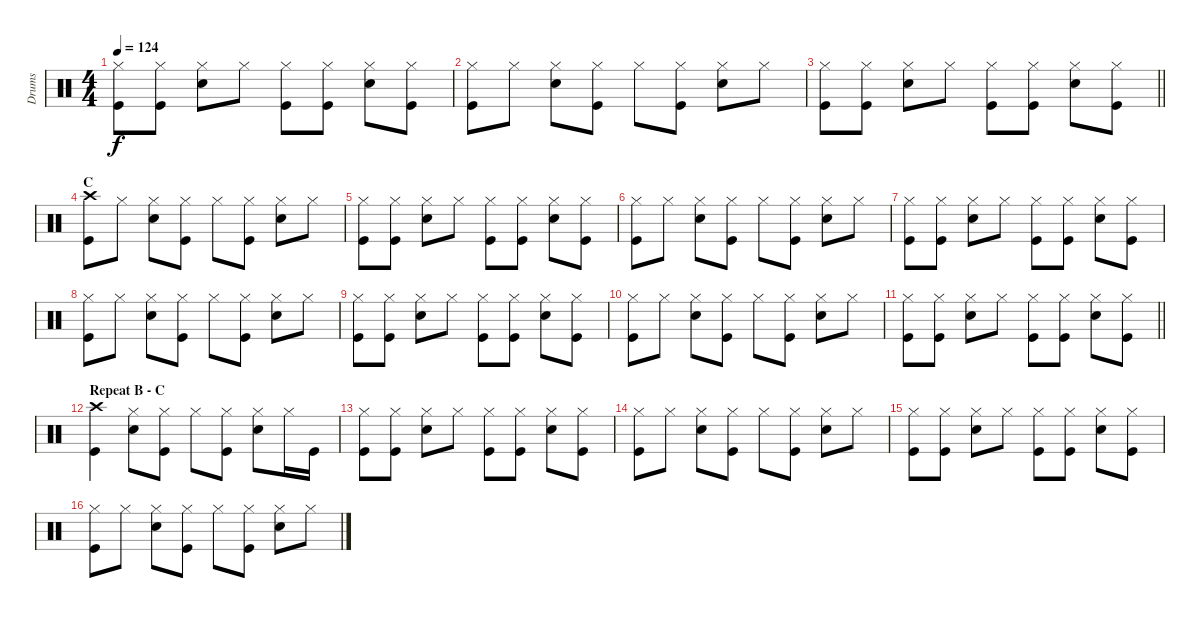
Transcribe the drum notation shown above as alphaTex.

\track ("Drums" "Drums") {instrument percussion}
\staff {score}
\articulation defaults
\ts (4 4)
\tempo 124
\clef neutral
\ks c
("Hi-Hat (closed)" "Kick (hit)").8{dy f} ("Hi-Hat (closed)" "Kick (hit)").8 ("Hi-Hat (closed)" "Electric Snare (hit)").8 "Hi-Hat (closed)".8 ("Hi-Hat (closed)" "Kick (hit)").8 ("Hi-Hat (closed)" "Kick (hit)").8 ("Hi-Hat (closed)" "Electric Snare (hit)").8 ("Hi-Hat (closed)" "Kick (hit)").8 |
("Hi-Hat (closed)" "Kick (hit)").8 "Hi-Hat (closed)".8 ("Hi-Hat (closed)" "Electric Snare (hit)").8 ("Hi-Hat (closed)" "Kick (hit)").8 "Hi-Hat (closed)".8 ("Hi-Hat (closed)" "Kick (hit)").8 ("Hi-Hat (closed)" "Electric Snare (hit)").8 "Hi-Hat (closed)".8 |
\barLineRight lightlight
("Hi-Hat (closed)" "Kick (hit)").8 ("Hi-Hat (closed)" "Kick (hit)").8 ("Hi-Hat (closed)" "Electric Snare (hit)").8 "Hi-Hat (closed)".8 ("Hi-Hat (closed)" "Kick (hit)").8 ("Hi-Hat (closed)" "Kick (hit)").8 ("Hi-Hat (closed)" "Electric Snare (hit)").8 ("Hi-Hat (closed)" "Kick (hit)").8 |
\section ("" "C")
("Crash high (hit)" "Kick (hit)").8 "Hi-Hat (closed)".8 ("Hi-Hat (closed)" "Electric Snare (hit)").8 ("Hi-Hat (closed)" "Kick (hit)").8 "Hi-Hat (closed)".8 ("Hi-Hat (closed)" "Kick (hit)").8 ("Hi-Hat (closed)" "Electric Snare (hit)").8 "Hi-Hat (closed)".8 |
("Hi-Hat (closed)" "Kick (hit)").8 ("Hi-Hat (closed)" "Kick (hit)").8 ("Hi-Hat (closed)" "Electric Snare (hit)").8 "Hi-Hat (closed)".8 ("Hi-Hat (closed)" "Kick (hit)").8 ("Hi-Hat (closed)" "Kick (hit)").8 ("Hi-Hat (closed)" "Electric Snare (hit)").8 ("Hi-Hat (closed)" "Kick (hit)").8 |
("Hi-Hat (closed)" "Kick (hit)").8 "Hi-Hat (closed)".8 ("Hi-Hat (closed)" "Electric Snare (hit)").8 ("Hi-Hat (closed)" "Kick (hit)").8 "Hi-Hat (closed)".8 ("Hi-Hat (closed)" "Kick (hit)").8 ("Hi-Hat (closed)" "Electric Snare (hit)").8 "Hi-Hat (closed)".8 |
("Hi-Hat (closed)" "Kick (hit)").8 ("Hi-Hat (closed)" "Kick (hit)").8 ("Hi-Hat (closed)" "Electric Snare (hit)").8 "Hi-Hat (closed)".8 ("Hi-Hat (closed)" "Kick (hit)").8 ("Hi-Hat (closed)" "Kick (hit)").8 ("Hi-Hat (closed)" "Electric Snare (hit)").8 ("Hi-Hat (closed)" "Kick (hit)").8 |
("Hi-Hat (closed)" "Kick (hit)").8 "Hi-Hat (closed)".8 ("Hi-Hat (closed)" "Electric Snare (hit)").8 ("Hi-Hat (closed)" "Kick (hit)").8 "Hi-Hat (closed)".8 ("Hi-Hat (closed)" "Kick (hit)").8 ("Hi-Hat (closed)" "Electric Snare (hit)").8 "Hi-Hat (closed)".8 |
("Hi-Hat (closed)" "Kick (hit)").8 ("Hi-Hat (closed)" "Kick (hit)").8 ("Hi-Hat (closed)" "Electric Snare (hit)").8 "Hi-Hat (closed)".8 ("Hi-Hat (closed)" "Kick (hit)").8 ("Hi-Hat (closed)" "Kick (hit)").8 ("Hi-Hat (closed)" "Electric Snare (hit)").8 ("Hi-Hat (closed)" "Kick (hit)").8 |
("Hi-Hat (closed)" "Kick (hit)").8 "Hi-Hat (closed)".8 ("Hi-Hat (closed)" "Electric Snare (hit)").8 ("Hi-Hat (closed)" "Kick (hit)").8 "Hi-Hat (closed)".8 ("Hi-Hat (closed)" "Kick (hit)").8 ("Hi-Hat (closed)" "Electric Snare (hit)").8 "Hi-Hat (closed)".8 |
\barLineRight lightlight
("Hi-Hat (closed)" "Kick (hit)").8 ("Hi-Hat (closed)" "Kick (hit)").8 ("Hi-Hat (closed)" "Electric Snare (hit)").8 "Hi-Hat (closed)".8 ("Hi-Hat (closed)" "Kick (hit)").8 ("Hi-Hat (closed)" "Kick (hit)").8 ("Hi-Hat (closed)" "Electric Snare (hit)").8 ("Hi-Hat (closed)" "Kick (hit)").8 |
\section ("" "Repeat B - C")
("Crash high (hit)" "Kick (hit)").4 ("Hi-Hat (closed)" "Electric Snare (hit)").8 ("Hi-Hat (closed)" "Kick (hit)").8 "Hi-Hat (closed)".8 ("Hi-Hat (closed)" "Kick (hit)").8 ("Hi-Hat (closed)" "Electric Snare (hit)").8 "Hi-Hat (closed)".16 "Kick (hit)".16 |
("Hi-Hat (closed)" "Kick (hit)").8 ("Hi-Hat (closed)" "Kick (hit)").8 ("Hi-Hat (closed)" "Electric Snare (hit)").8 "Hi-Hat (closed)".8 ("Hi-Hat (closed)" "Kick (hit)").8 ("Hi-Hat (closed)" "Kick (hit)").8 ("Hi-Hat (closed)" "Electric Snare (hit)").8 ("Hi-Hat (closed)" "Kick (hit)").8 |
("Hi-Hat (closed)" "Kick (hit)").8 "Hi-Hat (closed)".8 ("Hi-Hat (closed)" "Electric Snare (hit)").8 ("Hi-Hat (closed)" "Kick (hit)").8 "Hi-Hat (closed)".8 ("Hi-Hat (closed)" "Kick (hit)").8 ("Hi-Hat (closed)" "Electric Snare (hit)").8 "Hi-Hat (closed)".8 |
("Hi-Hat (closed)" "Kick (hit)").8 ("Hi-Hat (closed)" "Kick (hit)").8 ("Hi-Hat (closed)" "Electric Snare (hit)").8 "Hi-Hat (closed)".8 ("Hi-Hat (closed)" "Kick (hit)").8 ("Hi-Hat (closed)" "Kick (hit)").8 ("Hi-Hat (closed)" "Electric Snare (hit)").8 ("Hi-Hat (closed)" "Kick (hit)").8 |
("Hi-Hat (closed)" "Kick (hit)").8 "Hi-Hat (closed)".8 ("Hi-Hat (closed)" "Electric Snare (hit)").8 ("Hi-Hat (closed)" "Kick (hit)").8 "Hi-Hat (closed)".8 ("Hi-Hat (closed)" "Kick (hit)").8 ("Hi-Hat (closed)" "Electric Snare (hit)").8 "Hi-Hat (closed)".8
